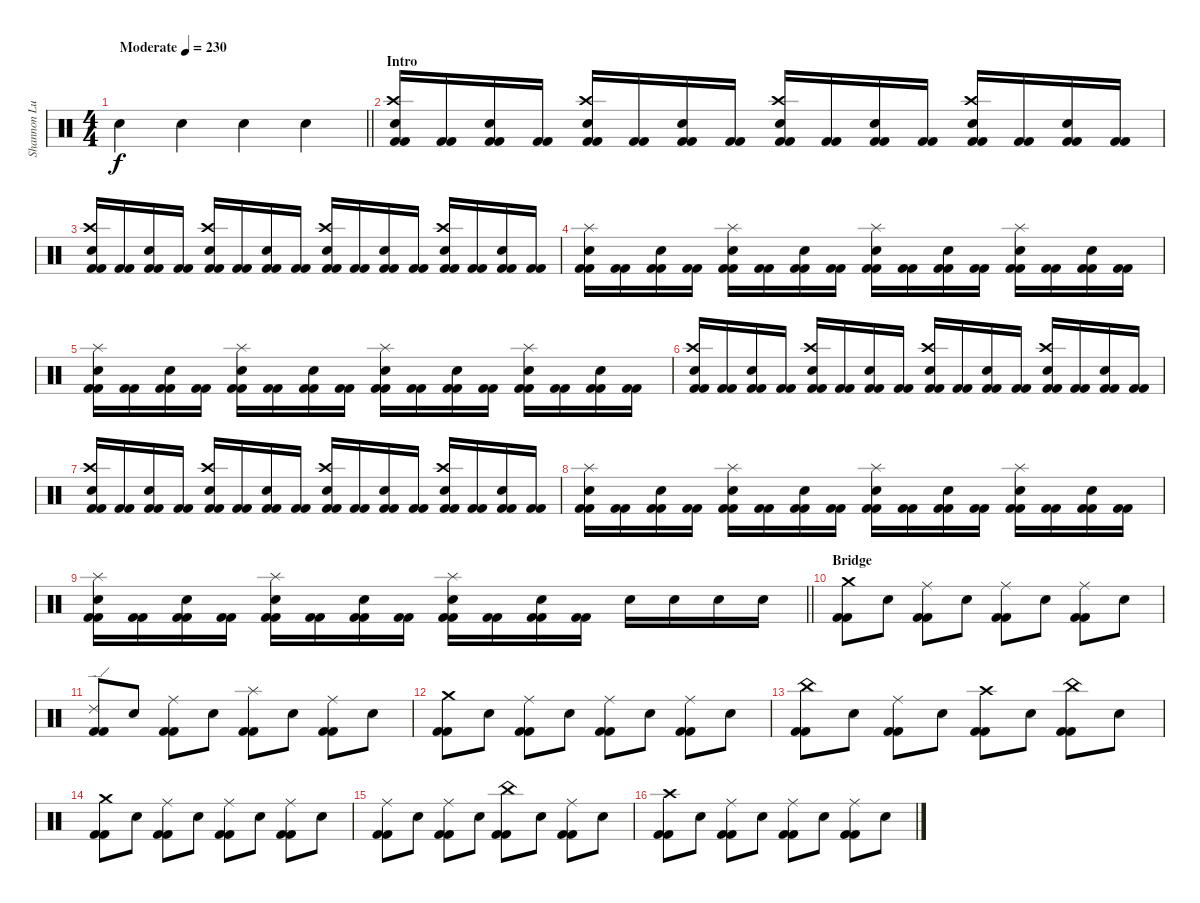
\track ("Shannon Lucas" "Shannon Lu") {instrument percussion}
\staff {score}
\articulation defaults
\ts (4 4)
\tempo (230 "Moderate")
\clef neutral
\barLineRight lightlight
\ks c "Electric Snare (hit)".4{dy f} "Electric Snare (hit)".4 "Electric Snare (hit)".4 "Electric Snare (hit)".4
|
\section ("" "Intro")
("Crash high (hit)" "Electric Snare (hit)" "Kick (hit) 2" "Kick (hit) 2").16 ("Kick (hit) 2" "Kick (hit) 2").16 ("Electric Snare (hit)" "Kick (hit) 2" "Kick (hit) 2").16 ("Kick (hit) 2" "Kick (hit) 2").16 ("Crash high (hit)" "Electric Snare (hit)" "Kick (hit) 2" "Kick (hit) 2").16 ("Kick (hit) 2" "Kick (hit) 2").16 ("Electric Snare (hit)" "Kick (hit) 2" "Kick (hit) 2").16 ("Kick (hit) 2" "Kick (hit) 2").16 ("Crash high (hit)" "Electric Snare (hit)" "Kick (hit) 2" "Kick (hit) 2").16 ("Kick (hit) 2" "Kick (hit) 2").16 ("Electric Snare (hit)" "Kick (hit) 2" "Kick (hit) 2").16 ("Kick (hit) 2" "Kick (hit) 2").16 ("Crash high (hit)" "Electric Snare (hit)" "Kick (hit) 2" "Kick (hit) 2").16 ("Kick (hit) 2" "Kick (hit) 2").16 ("Electric Snare (hit)" "Kick (hit) 2" "Kick (hit) 2").16 ("Kick (hit) 2" "Kick (hit) 2").16 |
("Crash high (hit)" "Electric Snare (hit)" "Kick (hit) 2" "Kick (hit) 2").16 ("Kick (hit) 2" "Kick (hit) 2").16 ("Electric Snare (hit)" "Kick (hit) 2" "Kick (hit) 2").16 ("Kick (hit) 2" "Kick (hit) 2").16 ("Crash high (hit)" "Electric Snare (hit)" "Kick (hit) 2" "Kick (hit) 2").16 ("Kick (hit) 2" "Kick (hit) 2").16 ("Electric Snare (hit)" "Kick (hit) 2" "Kick (hit) 2").16 ("Kick (hit) 2" "Kick (hit) 2").16 ("Crash high (hit)" "Electric Snare (hit)" "Kick (hit) 2" "Kick (hit) 2").16 ("Kick (hit) 2" "Kick (hit) 2").16 ("Electric Snare (hit)" "Kick (hit) 2" "Kick (hit) 2").16 ("Kick (hit) 2" "Kick (hit) 2").16 ("Crash high (hit)" "Electric Snare (hit)" "Kick (hit) 2" "Kick (hit) 2").16 ("Kick (hit) 2" "Kick (hit) 2").16 ("Electric Snare (hit)" "Kick (hit) 2" "Kick (hit) 2").16 ("Kick (hit) 2" "Kick (hit) 2").16 |
("Splash (hit)" "Electric Snare (hit)" "Kick (hit) 2" "Kick (hit) 2").16 ("Kick (hit) 2" "Kick (hit) 2").16 ("Electric Snare (hit)" "Kick (hit) 2" "Kick (hit) 2").16 ("Kick (hit) 2" "Kick (hit) 2").16 ("Splash (hit)" "Electric Snare (hit)" "Kick (hit) 2" "Kick (hit) 2").16 ("Kick (hit) 2" "Kick (hit) 2").16 ("Electric Snare (hit)" "Kick (hit) 2" "Kick (hit) 2").16 ("Kick (hit) 2" "Kick (hit) 2").16 ("Splash (hit)" "Electric Snare (hit)" "Kick (hit) 2" "Kick (hit) 2").16 ("Kick (hit) 2" "Kick (hit) 2").16 ("Electric Snare (hit)" "Kick (hit) 2" "Kick (hit) 2").16 ("Kick (hit) 2" "Kick (hit) 2").16 ("Splash (hit)" "Electric Snare (hit)" "Kick (hit) 2" "Kick (hit) 2").16 ("Kick (hit) 2" "Kick (hit) 2").16 ("Electric Snare (hit)" "Kick (hit) 2" "Kick (hit) 2").16 ("Kick (hit) 2" "Kick (hit) 2").16 |
("Splash (hit)" "Electric Snare (hit)" "Kick (hit) 2" "Kick (hit) 2").16 ("Kick (hit) 2" "Kick (hit) 2").16 ("Electric Snare (hit)" "Kick (hit) 2" "Kick (hit) 2").16 ("Kick (hit) 2" "Kick (hit) 2").16 ("Splash (hit)" "Electric Snare (hit)" "Kick (hit) 2" "Kick (hit) 2").16 ("Kick (hit) 2" "Kick (hit) 2").16 ("Electric Snare (hit)" "Kick (hit) 2" "Kick (hit) 2").16 ("Kick (hit) 2" "Kick (hit) 2").16 ("Splash (hit)" "Electric Snare (hit)" "Kick (hit) 2" "Kick (hit) 2").16 ("Kick (hit) 2" "Kick (hit) 2").16 ("Electric Snare (hit)" "Kick (hit) 2" "Kick (hit) 2").16 ("Kick (hit) 2" "Kick (hit) 2").16 ("Splash (hit)" "Electric Snare (hit)" "Kick (hit) 2" "Kick (hit) 2").16 ("Kick (hit) 2" "Kick (hit) 2").16 ("Electric Snare (hit)" "Kick (hit) 2" "Kick (hit) 2").16 ("Kick (hit) 2" "Kick (hit) 2").16 |
("Crash high (hit)" "Electric Snare (hit)" "Kick (hit) 2" "Kick (hit) 2").16 ("Kick (hit) 2" "Kick (hit) 2").16 ("Electric Snare (hit)" "Kick (hit) 2" "Kick (hit) 2").16 ("Kick (hit) 2" "Kick (hit) 2").16 ("Crash high (hit)" "Electric Snare (hit)" "Kick (hit) 2" "Kick (hit) 2").16 ("Kick (hit) 2" "Kick (hit) 2").16 ("Electric Snare (hit)" "Kick (hit) 2" "Kick (hit) 2").16 ("Kick (hit) 2" "Kick (hit) 2").16 ("Crash high (hit)" "Electric Snare (hit)" "Kick (hit) 2" "Kick (hit) 2").16 ("Kick (hit) 2" "Kick (hit) 2").16 ("Electric Snare (hit)" "Kick (hit) 2" "Kick (hit) 2").16 ("Kick (hit) 2" "Kick (hit) 2").16 ("Crash high (hit)" "Electric Snare (hit)" "Kick (hit) 2" "Kick (hit) 2").16 ("Kick (hit) 2" "Kick (hit) 2").16 ("Electric Snare (hit)" "Kick (hit) 2" "Kick (hit) 2").16 ("Kick (hit) 2" "Kick (hit) 2").16 |
("Crash high (hit)" "Electric Snare (hit)" "Kick (hit) 2" "Kick (hit) 2").16 ("Kick (hit) 2" "Kick (hit) 2").16 ("Electric Snare (hit)" "Kick (hit) 2" "Kick (hit) 2").16 ("Kick (hit) 2" "Kick (hit) 2").16 ("Crash high (hit)" "Electric Snare (hit)" "Kick (hit) 2" "Kick (hit) 2").16 ("Kick (hit) 2" "Kick (hit) 2").16 ("Electric Snare (hit)" "Kick (hit) 2" "Kick (hit) 2").16 ("Kick (hit) 2" "Kick (hit) 2").16 ("Crash high (hit)" "Electric Snare (hit)" "Kick (hit) 2" "Kick (hit) 2").16 ("Kick (hit) 2" "Kick (hit) 2").16 ("Electric Snare (hit)" "Kick (hit) 2" "Kick (hit) 2").16 ("Kick (hit) 2" "Kick (hit) 2").16 ("Crash high (hit)" "Electric Snare (hit)" "Kick (hit) 2" "Kick (hit) 2").16 ("Kick (hit) 2" "Kick (hit) 2").16 ("Electric Snare (hit)" "Kick (hit) 2" "Kick (hit) 2").16 ("Kick (hit) 2" "Kick (hit) 2").16 |
("Splash (hit)" "Electric Snare (hit)" "Kick (hit) 2" "Kick (hit) 2").16 ("Kick (hit) 2" "Kick (hit) 2").16 ("Electric Snare (hit)" "Kick (hit) 2" "Kick (hit) 2").16 ("Kick (hit) 2" "Kick (hit) 2").16 ("Splash (hit)" "Electric Snare (hit)" "Kick (hit) 2" "Kick (hit) 2").16 ("Kick (hit) 2" "Kick (hit) 2").16 ("Electric Snare (hit)" "Kick (hit) 2" "Kick (hit) 2").16 ("Kick (hit) 2" "Kick (hit) 2").16 ("Splash (hit)" "Electric Snare (hit)" "Kick (hit) 2" "Kick (hit) 2").16 ("Kick (hit) 2" "Kick (hit) 2").16 ("Electric Snare (hit)" "Kick (hit) 2" "Kick (hit) 2").16 ("Kick (hit) 2" "Kick (hit) 2").16 ("Splash (hit)" "Electric Snare (hit)" "Kick (hit) 2" "Kick (hit) 2").16 ("Kick (hit) 2" "Kick (hit) 2").16 ("Electric Snare (hit)" "Kick (hit) 2" "Kick (hit) 2").16 ("Kick (hit) 2" "Kick (hit) 2").16 |
\barLineRight lightlight
("Splash (hit)" "Electric Snare (hit)" "Kick (hit) 2" "Kick (hit) 2").16 ("Kick (hit) 2" "Kick (hit) 2").16 ("Electric Snare (hit)" "Kick (hit) 2" "Kick (hit) 2").16 ("Kick (hit) 2" "Kick (hit) 2").16 ("Splash (hit)" "Electric Snare (hit)" "Kick (hit) 2" "Kick (hit) 2").16 ("Kick (hit) 2" "Kick (hit) 2").16 ("Electric Snare (hit)" "Kick (hit) 2" "Kick (hit) 2").16 ("Kick (hit) 2" "Kick (hit) 2").16 ("Splash (hit)" "Electric Snare (hit)" "Kick (hit) 2" "Kick (hit) 2").16 ("Kick (hit) 2" "Kick (hit) 2").16 ("Electric Snare (hit)" "Kick (hit) 2" "Kick (hit) 2").16 ("Kick (hit) 2" "Kick (hit) 2").16 "Electric Snare (hit)".16 "Electric Snare (hit)".16 "Electric Snare (hit)".16 "Electric Snare (hit)".16 |
\section ("" "Bridge")
("Crash medium (hit)" "Kick (hit) 2" "Kick (hit) 2").8 "Electric Snare (hit)".8 ("Ride (middle)" "Kick (hit) 2" "Kick (hit) 2").8 "Electric Snare (hit)".8 ("Ride (middle)" "Kick (hit) 2" "Kick (hit) 2").8 "Electric Snare (hit)".8 ("Ride (middle)" "Kick (hit) 2" "Kick (hit) 2").8 "Electric Snare (hit)".8 |
("Ride (edge) 2" "Kick (hit) 2" "Kick (hit) 2").8 "Electric Snare (hit)".8 ("Ride (middle)" "Kick (hit) 2" "Kick (hit) 2").8 "Electric Snare (hit)".8 ("Splash (hit)" "Kick (hit) 2" "Kick (hit) 2").8 "Electric Snare (hit)".8 ("Ride (middle)" "Kick (hit) 2" "Kick (hit) 2").8 "Electric Snare (hit)".8 |
("Crash medium (hit)" "Kick (hit) 2" "Kick (hit) 2").8 "Electric Snare (hit)".8 ("Ride (middle)" "Kick (hit) 2" "Kick (hit) 2").8 "Electric Snare (hit)".8 ("Ride (middle)" "Kick (hit) 2" "Kick (hit) 2").8 "Electric Snare (hit)".8 ("Ride (middle)" "Kick (hit) 2" "Kick (hit) 2").8 "Electric Snare (hit)".8 |
("China (hit)" "Kick (hit) 2" "Kick (hit) 2").8 "Electric Snare (hit)".8 ("Ride (middle)" "Kick (hit) 2" "Kick (hit) 2").8 "Electric Snare (hit)".8 ("Crash high (hit)" "Kick (hit) 2" "Kick (hit) 2").8 "Electric Snare (hit)".8 ("China (hit)" "Kick (hit) 2" "Kick (hit) 2").8 "Electric Snare (hit)".8 |
("Crash medium (hit)" "Kick (hit) 2" "Kick (hit) 2").8 "Electric Snare (hit)".8 ("Ride (middle)" "Kick (hit) 2" "Kick (hit) 2").8 "Electric Snare (hit)".8 ("Ride (middle)" "Kick (hit) 2" "Kick (hit) 2").8 "Electric Snare (hit)".8 ("Ride (middle)" "Kick (hit) 2" "Kick (hit) 2").8 "Electric Snare (hit)".8 |
("Ride (middle)" "Kick (hit) 2" "Kick (hit) 2").8 "Electric Snare (hit)".8 ("Ride (middle)" "Kick (hit) 2" "Kick (hit) 2").8 "Electric Snare (hit)".8 ("China (hit)" "Kick (hit) 2" "Kick (hit) 2").8 "Electric Snare (hit)".8 ("Ride (middle)" "Kick (hit) 2" "Kick (hit) 2").8 "Electric Snare (hit)".8 |
("Crash high (hit)" "Kick (hit) 2" "Kick (hit) 2").8 "Electric Snare (hit)".8 ("Ride (middle)" "Kick (hit) 2" "Kick (hit) 2").8 "Electric Snare (hit)".8 ("Ride (middle)" "Kick (hit) 2" "Kick (hit) 2").8 "Electric Snare (hit)".8 ("Ride (middle)" "Kick (hit) 2" "Kick (hit) 2").8 "Electric Snare (hit)".8
